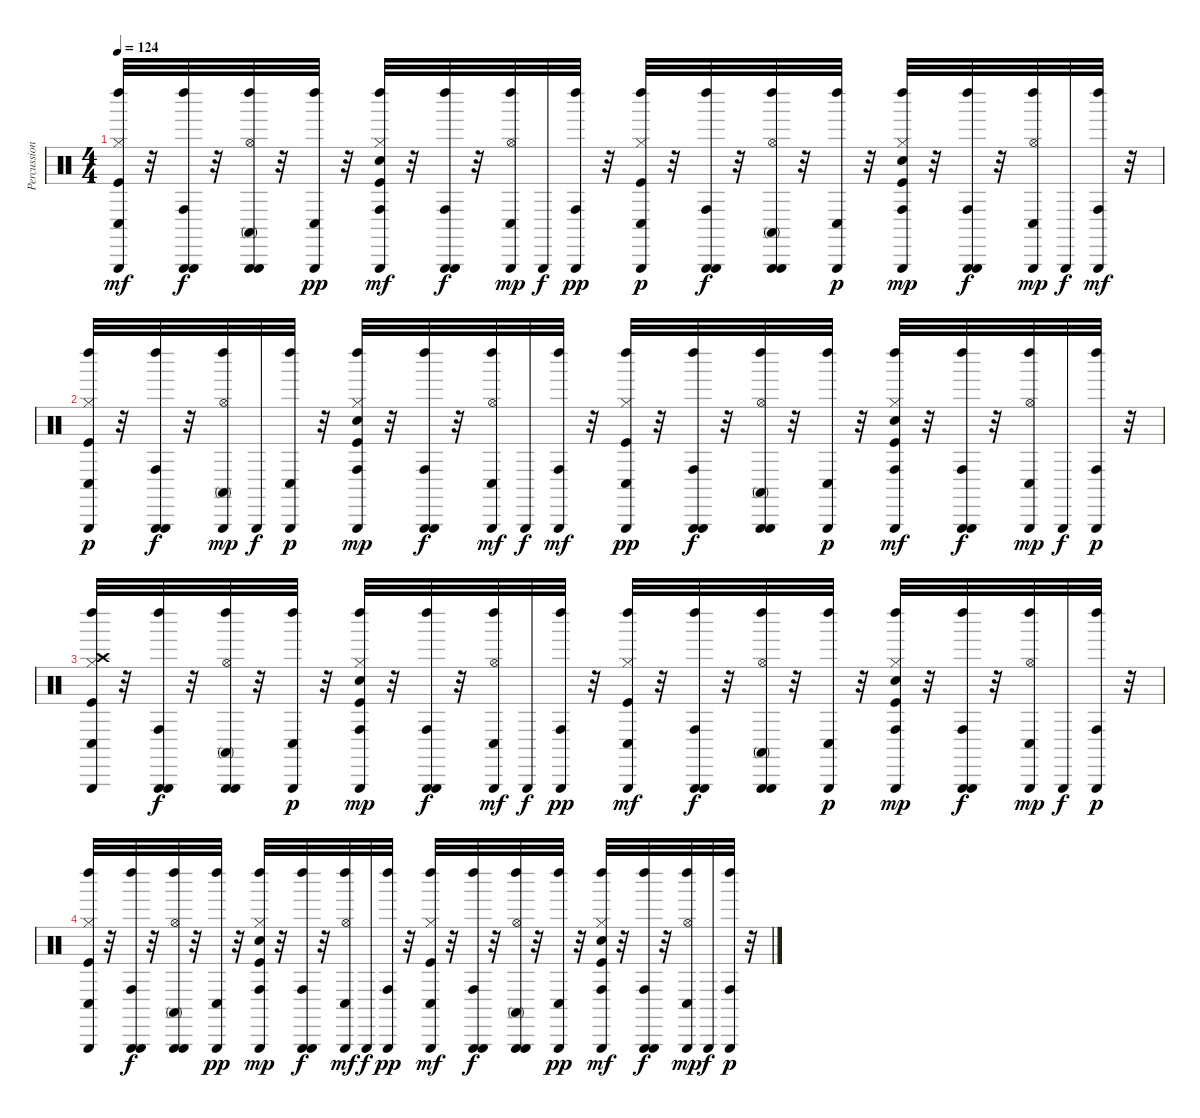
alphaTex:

\track ("Percussion" "Percussion") {instrument percussion}
\staff {score}
\articulation defaults
\ts (4 4)
\tempo 124
\clef neutral
\ks c
("Conga low (hit)" "Left Maraca (hit)" "Triangle (hit)" "Kick (hit)" "Hi-Hat (closed)").32{dy mf} r.32 ("Left Maraca (hit)" "Triangle (hit)" "Conga high (hit)" "Triangle (hit)").32{dy f} r.32 ("Triangle (hit)" "Hi-Hat (open)" "Conga high (mute)" "Left Maraca (hit)" "Triangle (hit)").32 r.32 ("Triangle (hit)" "Conga low (hit)" "Left Maraca (hit)").32{dy pp} r.32 ("Triangle (hit)" "Kick (hit)" "Snare (hit) 2" "Conga high (hit)" "Left Maraca (hit)" "Hi-Hat (closed)").32{dy mf} r.32 ("Triangle (hit)" "Conga high (hit)" "Left Maraca (hit)" "Triangle (hit)").32{dy f} r.32 ("Left Maraca (hit)" "Triangle (hit)" "Conga low (hit)" "Hi-Hat (open)").32{dy mp} "Triangle (hit)".32{dy f} ("Triangle (hit)" "Conga high (hit)" "Left Maraca (hit)").32{dy pp} r.32 ("Triangle (hit)" "Conga low (hit)" "Kick (hit)" "Hi-Hat (closed)" "Left Maraca (hit)").32{dy p} r.32 ("Triangle (hit)" "Conga high (hit)" "Left Maraca (hit)" "Triangle (hit)").32{dy f} r.32 ("Triangle (hit)" "Hi-Hat (open)" "Conga high (mute)" "Left Maraca (hit)" "Triangle (hit)").32 r.32 ("Triangle (hit)" "Left Maraca (hit)" "Conga low (hit)").32{dy p} r.32 ("Hi-Hat (closed)" "Left Maraca (hit)" "Triangle (hit)" "Kick (hit)" "Snare (hit) 2" "Conga high (hit)").32{dy mp} r.32 ("Triangle (hit)" "Conga high (hit)" "Left Maraca (hit)" "Triangle (hit)").32{dy f} r.32 ("Conga low (hit)" "Triangle (hit)" "Hi-Hat (open)" "Left Maraca (hit)").32{dy mp} "Triangle (hit)".32{dy f} ("Triangle (hit)" "Left Maraca (hit)" "Conga high (hit)").32{dy mf} r.32 |
("Triangle (hit)" "Left Maraca (hit)" "Kick (hit)" "Hi-Hat (closed)" "Conga low (hit)").32{dy p} r.32 ("Triangle (hit)" "Conga high (hit)" "Left Maraca (hit)" "Triangle (hit)").32{dy f} r.32 ("Left Maraca (hit)" "Triangle (hit)" "Conga high (mute)" "Hi-Hat (open)").32{dy mp} "Triangle (hit)".32{dy f} ("Left Maraca (hit)" "Triangle (hit)" "Conga low (hit)").32{dy p} r.32 ("Conga high (hit)" "Triangle (hit)" "Kick (hit)" "Snare (hit) 2" "Hi-Hat (closed)" "Left Maraca (hit)").32{dy mp} r.32 ("Triangle (hit)" "Conga high (hit)" "Left Maraca (hit)" "Triangle (hit)").32{dy f} r.32 ("Hi-Hat (open)" "Triangle (hit)" "Left Maraca (hit)" "Conga low (hit)").32{dy mf} "Triangle (hit)".32{dy f} ("Left Maraca (hit)" "Triangle (hit)" "Conga high (hit)").32{dy mf} r.32 ("Triangle (hit)" "Kick (hit)" "Hi-Hat (closed)" "Left Maraca (hit)" "Conga low (hit)").32{dy pp} r.32 ("Triangle (hit)" "Conga high (hit)" "Left Maraca (hit)" "Triangle (hit)").32{dy f} r.32 ("Hi-Hat (open)" "Left Maraca (hit)" "Triangle (hit)" "Conga high (mute)" "Triangle (hit)").32 r.32 ("Triangle (hit)" "Left Maraca (hit)" "Conga low (hit)").32{dy p} r.32 ("Triangle (hit)" "Kick (hit)" "Snare (hit) 2" "Left Maraca (hit)" "Hi-Hat (closed)" "Conga high (hit)").32{dy mf} r.32 ("Conga high (hit)" "Triangle (hit)" "Left Maraca (hit)" "Triangle (hit)").32{dy f} r.32 ("Triangle (hit)" "Conga low (hit)" "Hi-Hat (open)" "Left Maraca (hit)").32{dy mp} "Triangle (hit)".32{dy f} ("Triangle (hit)" "Conga high (hit)" "Left Maraca (hit)").32{dy p} r.32 |
("Left Maraca (hit)" "Triangle (hit)" "Kick (hit)" "Hi-Hat (closed)" "Crash high (hit)" "Conga low (hit)").32 r.32 ("Triangle (hit)" "Conga high (hit)" "Left Maraca (hit)" "Triangle (hit)").32{dy f} r.32 ("Hi-Hat (open)" "Conga high (mute)" "Left Maraca (hit)" "Triangle (hit)" "Triangle (hit)").32 r.32 ("Triangle (hit)" "Left Maraca (hit)" "Conga low (hit)").32{dy p} r.32 ("Triangle (hit)" "Kick (hit)" "Snare (hit) 2" "Hi-Hat (closed)" "Conga high (hit)" "Left Maraca (hit)").32{dy mp} r.32 ("Triangle (hit)" "Left Maraca (hit)" "Conga high (hit)" "Triangle (hit)").32{dy f} r.32 ("Hi-Hat (open)" "Left Maraca (hit)" "Triangle (hit)" "Conga low (hit)").32{dy mf} "Triangle (hit)".32{dy f} ("Triangle (hit)" "Conga high (hit)" "Left Maraca (hit)").32{dy pp} r.32 ("Conga low (hit)" "Left Maraca (hit)" "Triangle (hit)" "Kick (hit)" "Hi-Hat (closed)").32{dy mf} r.32 ("Triangle (hit)" "Conga high (hit)" "Left Maraca (hit)" "Triangle (hit)").32{dy f} r.32 ("Triangle (hit)" "Hi-Hat (open)" "Conga high (mute)" "Left Maraca (hit)" "Triangle (hit)").32 r.32 ("Triangle (hit)" "Left Maraca (hit)" "Conga low (hit)").32{dy p} r.32 ("Left Maraca (hit)" "Triangle (hit)" "Kick (hit)" "Snare (hit) 2" "Conga high (hit)" "Hi-Hat (closed)").32{dy mp} r.32 ("Left Maraca (hit)" "Triangle (hit)" "Conga high (hit)" "Triangle (hit)").32{dy f} r.32 ("Triangle (hit)" "Hi-Hat (open)" "Left Maraca (hit)" "Conga low (hit)").32{dy mp} "Triangle (hit)".32{dy f} ("Triangle (hit)" "Conga high (hit)" "Left Maraca (hit)").32{dy p} r.32 |
("Triangle (hit)" "Left Maraca (hit)" "Kick (hit)" "Hi-Hat (closed)" "Conga low (hit)").32 r.32 ("Triangle (hit)" "Conga high (hit)" "Left Maraca (hit)" "Triangle (hit)").32{dy f} r.32 ("Triangle (hit)" "Hi-Hat (open)" "Conga high (mute)" "Left Maraca (hit)" "Triangle (hit)").32 r.32 ("Triangle (hit)" "Conga low (hit)" "Left Maraca (hit)").32{dy pp} r.32 ("Triangle (hit)" "Kick (hit)" "Snare (hit) 2" "Hi-Hat (closed)" "Conga high (hit)" "Left Maraca (hit)").32{dy mp} r.32 ("Conga high (hit)" "Triangle (hit)" "Left Maraca (hit)" "Triangle (hit)").32{dy f} r.32 ("Triangle (hit)" "Conga low (hit)" "Hi-Hat (open)" "Left Maraca (hit)").32{dy mf} "Triangle (hit)".32{dy f} ("Triangle (hit)" "Conga high (hit)" "Left Maraca (hit)").32{dy pp} r.32 ("Left Maraca (hit)" "Triangle (hit)" "Kick (hit)" "Conga low (hit)" "Hi-Hat (closed)").32{dy mf} r.32 ("Triangle (hit)" "Conga high (hit)" "Left Maraca (hit)" "Triangle (hit)").32{dy f} r.32 ("Triangle (hit)" "Hi-Hat (open)" "Conga high (mute)" "Left Maraca (hit)" "Triangle (hit)").32 r.32 ("Triangle (hit)" "Conga low (hit)" "Left Maraca (hit)").32{dy pp} r.32 ("Triangle (hit)" "Kick (hit)" "Snare (hit) 2" "Hi-Hat (closed)" "Left Maraca (hit)" "Conga high (hit)").32{dy mf} r.32 ("Triangle (hit)" "Conga high (hit)" "Left Maraca (hit)" "Triangle (hit)").32{dy f} r.32 ("Triangle (hit)" "Hi-Hat (open)" "Conga low (hit)" "Left Maraca (hit)").32{dy mp} "Triangle (hit)".32{dy f} ("Triangle (hit)" "Conga high (hit)" "Left Maraca (hit)").32{dy p} r.32
